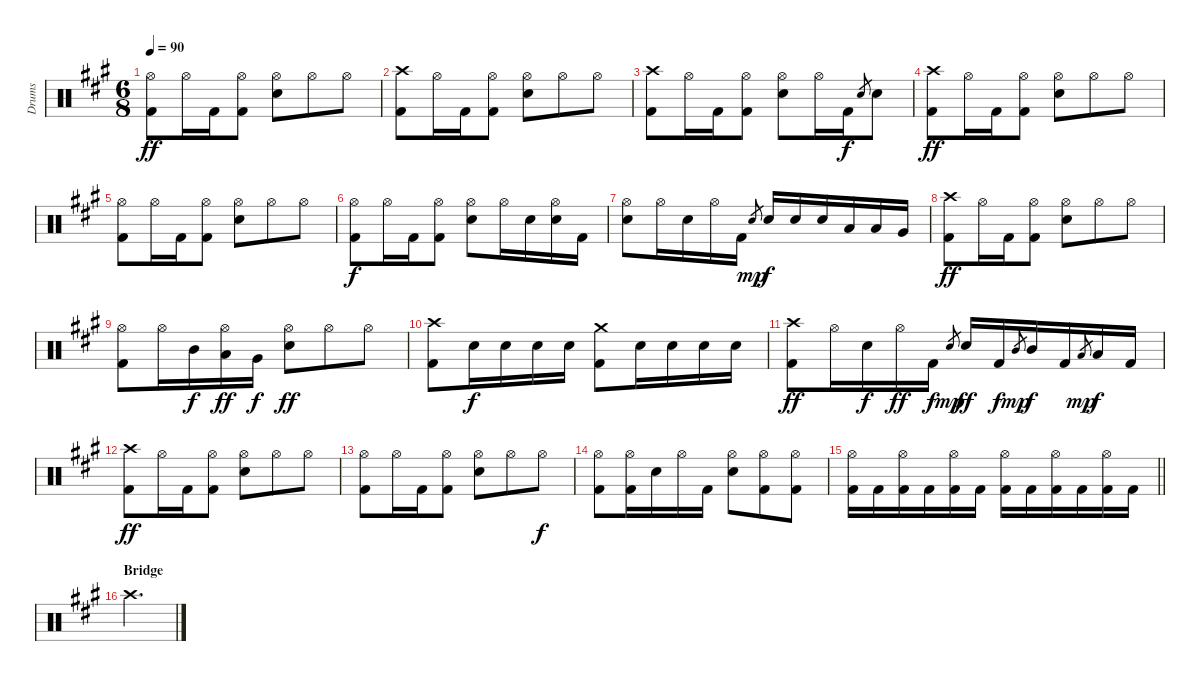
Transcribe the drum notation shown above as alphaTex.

\track ("Drums" "Drums") {instrument percussion}
\staff {score}
\articulation defaults
\ts (6 8)
\tempo 90
\clef neutral
\ks a
("Hi-Hat (open)" "Kick (hit) 2").8{dy ff} "Hi-Hat (open)".16 "Kick (hit) 2".16 ("Hi-Hat (open)" "Kick (hit) 2").8 ("Hi-Hat (open)" "Snare (hit) 2").8 "Hi-Hat (open)".8 "Hi-Hat (open)".8 |
("Crash high (hit)" "Kick (hit) 2").8 "Hi-Hat (open)".16 "Kick (hit) 2".16 ("Hi-Hat (open)" "Kick (hit) 2").8 ("Hi-Hat (open)" "Snare (hit) 2").8 "Hi-Hat (open)".8 "Hi-Hat (open)".8 |
("Crash high (hit)" "Kick (hit) 2").8 "Hi-Hat (open)".16 "Kick (hit) 2".16 ("Hi-Hat (open)" "Kick (hit) 2").8 ("Hi-Hat (open)" "Snare (hit) 2").8 "Hi-Hat (open)".16 "Kick (hit) 2".16{dy f} "Snare (hit) 2".8{gr} "Snare (hit) 2".8 |
("Crash high (hit)" "Kick (hit) 2").8{dy ff} "Hi-Hat (open)".16 "Kick (hit) 2".16 ("Hi-Hat (open)" "Kick (hit) 2").8 ("Hi-Hat (open)" "Snare (hit) 2").8 "Hi-Hat (open)".8 "Hi-Hat (open)".8 |
("Hi-Hat (open)" "Kick (hit) 2").8 "Hi-Hat (open)".16 "Kick (hit) 2".16 ("Hi-Hat (open)" "Kick (hit) 2").8 ("Hi-Hat (open)" "Snare (hit) 2").8 "Hi-Hat (open)".8 "Hi-Hat (open)".8 |
("Hi-Hat (open)" "Kick (hit) 2").8{dy f} "Hi-Hat (open)".16 "Kick (hit) 2".16 ("Hi-Hat (open)" "Kick (hit) 2").8 ("Hi-Hat (open)" "Snare (hit) 2").8 "Hi-Hat (open)".16 "Snare (hit) 2".16 ("Hi-Hat (open)" "Snare (hit) 2").16 "Kick (hit) 2".16 |
("Hi-Hat (open)" "Snare (hit) 2").8 "Hi-Hat (open)".16 "Snare (hit) 2".16 "Hi-Hat (open)".16 "Kick (hit) 2".16 "Snare (hit) 2".8{gr dy mp} "Snare (hit) 2".16{dy f} "Snare (hit) 2".16 "Snare (hit) 2".16 "Low Tom (hit)".16 "Low Tom (hit)".16 "Very Low Tom (hit)".16 |
("Crash high (hit)" "Kick (hit) 2").8{dy ff} "Hi-Hat (open)".16 "Kick (hit) 2".16 ("Hi-Hat (open)" "Kick (hit) 2").8 ("Hi-Hat (open)" "Snare (hit) 2").8 "Hi-Hat (open)".8 "Hi-Hat (open)".8 |
("Hi-Hat (open)" "Kick (hit) 2").8 "Hi-Hat (open)".16 "Mid Tom (hit)".16{dy f} ("Hi-Hat (open)" "Low Tom (hit)").16{dy ff} "Very Low Tom (hit)".16{dy f} ("Hi-Hat (open)" "Snare (hit) 2").8{dy ff} "Hi-Hat (open)".8 "Hi-Hat (open)".8 |
("Crash high (hit)" "Kick (hit) 2").8 "Snare (hit) 2".16{dy f} "Snare (hit) 2".16 "Snare (hit) 2".16 "Snare (hit) 2".16 ("Crash medium (hit)" "Kick (hit) 2").8 "Snare (hit) 2".16 "Snare (hit) 2".16 "Snare (hit) 2".16 "Snare (hit) 2".16 |
("Crash high (hit)" "Kick (hit) 2").8{dy ff} "Hi-Hat (open)".16 "Snare (hit) 2".16{dy f} "Hi-Hat (open)".16{dy ff} "Kick (hit) 2".16{dy f} "Snare (hit) 2".8{gr dy mp} "Snare (hit) 2".16{dy ff} "Kick (hit) 2".16{dy f} "Mid Tom (hit)".8{gr dy mp} "Mid Tom (hit)".16{dy f} "Kick (hit) 2".16 "Low Tom (hit)".8{gr dy mp} "Low Tom (hit)".16{dy f} "Kick (hit) 2".16 |
("Crash high (hit)" "Kick (hit) 2").8{dy ff} "Hi-Hat (open)".16 "Kick (hit) 2".16 ("Hi-Hat (open)" "Kick (hit) 2").8 ("Hi-Hat (open)" "Snare (hit) 2").8 "Hi-Hat (open)".8 "Hi-Hat (open)".8 |
("Hi-Hat (open)" "Kick (hit) 2").8 "Hi-Hat (open)".16 "Kick (hit) 2".16 ("Hi-Hat (open)" "Kick (hit) 2").8 ("Hi-Hat (open)" "Snare (hit) 2").8 "Hi-Hat (open)".8 "Hi-Hat (open)".8{dy f} |
("Hi-Hat (open)" "Kick (hit) 2").8 ("Hi-Hat (open)" "Kick (hit) 2").16 "Snare (hit) 2".16 "Hi-Hat (open)".16 "Kick (hit) 2".16 ("Hi-Hat (open)" "Snare (hit) 2").8 ("Hi-Hat (open)" "Kick (hit) 2").8 ("Hi-Hat (open)" "Kick (hit) 2").8 |
\barLineRight lightlight
("Hi-Hat (open)" "Kick (hit) 2").16 "Kick (hit) 2".16 ("Hi-Hat (open)" "Kick (hit) 2").16 "Kick (hit) 2".16 ("Hi-Hat (open)" "Kick (hit) 2").16 "Kick (hit) 2".16 ("Hi-Hat (open)" "Kick (hit) 2").16 "Kick (hit) 2".16 ("Hi-Hat (open)" "Kick (hit) 2").16 "Kick (hit) 2".16 ("Hi-Hat (open)" "Kick (hit) 2").16 "Kick (hit) 2".16 |
\section ("" "Bridge")
"Crash high (hit)".2{d}
